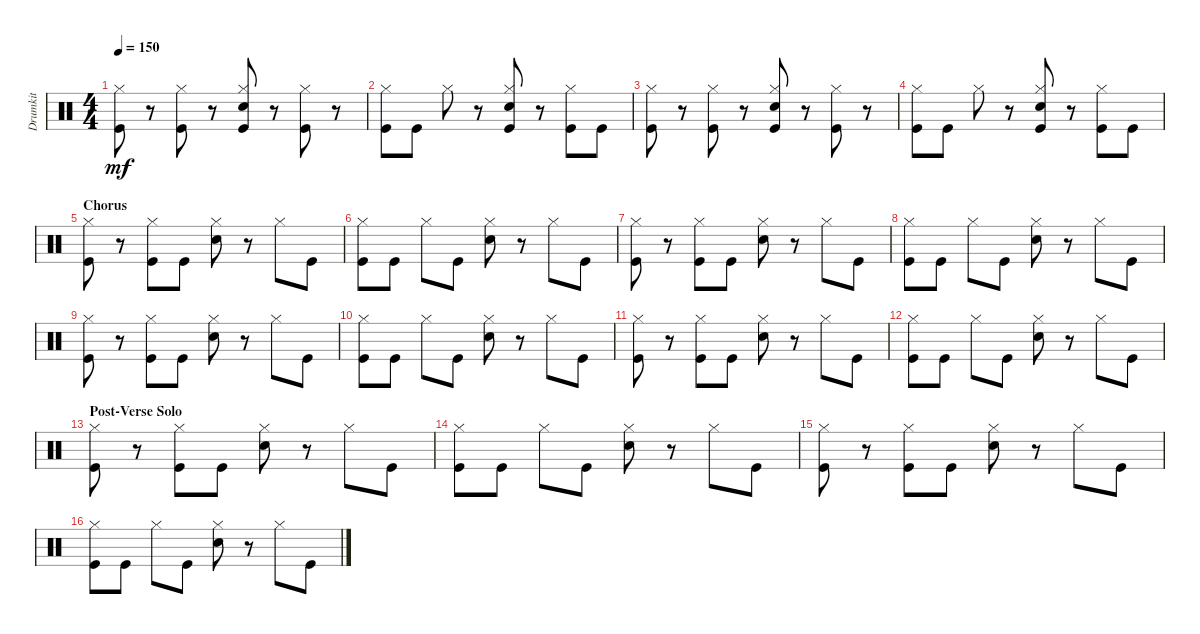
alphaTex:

\track ("Drumkit" "Drumkit") {instrument percussion}
\staff {score}
\articulation defaults
\ts (4 4)
\tempo 150
\clef neutral
\ks c
("Kick (hit)" "Hi-Hat (closed)").8{dy mf} r.8 ("Kick (hit)" "Hi-Hat (closed)").8 r.8 ("Snare (hit) 2" "Kick (hit)" "Hi-Hat (closed)").8 r.8 ("Kick (hit)" "Hi-Hat (closed)").8 r.8 |
("Kick (hit)" "Hi-Hat (closed)").8 "Kick (hit)".8 "Hi-Hat (closed)".8 r.8 ("Snare (hit) 2" "Kick (hit)" "Hi-Hat (closed)").8 r.8 ("Kick (hit)" "Hi-Hat (closed)").8 "Kick (hit)".8 |
("Kick (hit)" "Hi-Hat (closed)").8 r.8 ("Kick (hit)" "Hi-Hat (closed)").8 r.8 ("Snare (hit) 2" "Kick (hit)" "Hi-Hat (closed)").8 r.8 ("Kick (hit)" "Hi-Hat (closed)").8 r.8 |
("Kick (hit)" "Hi-Hat (closed)").8 "Kick (hit)".8 "Hi-Hat (closed)".8 r.8 ("Snare (hit) 2" "Kick (hit)" "Hi-Hat (closed)").8 r.8 ("Kick (hit)" "Hi-Hat (closed)").8 "Kick (hit)".8 |
\section ("" "Chorus")
("Kick (hit)" "Hi-Hat (closed)").8 r.8 ("Kick (hit)" "Hi-Hat (closed)").8 "Kick (hit)".8 ("Snare (hit) 2" "Hi-Hat (closed)").8 r.8 "Hi-Hat (closed)".8 "Kick (hit)".8 |
("Kick (hit)" "Hi-Hat (closed)").8 "Kick (hit)".8 "Hi-Hat (closed)".8 "Kick (hit)".8 ("Snare (hit) 2" "Hi-Hat (closed)").8 r.8 "Hi-Hat (closed)".8 "Kick (hit)".8 |
("Kick (hit)" "Hi-Hat (closed)").8 r.8 ("Kick (hit)" "Hi-Hat (closed)").8 "Kick (hit)".8 ("Snare (hit) 2" "Hi-Hat (closed)").8 r.8 "Hi-Hat (closed)".8 "Kick (hit)".8 |
("Kick (hit)" "Hi-Hat (closed)").8 "Kick (hit)".8 "Hi-Hat (closed)".8 "Kick (hit)".8 ("Snare (hit) 2" "Hi-Hat (closed)").8 r.8 "Hi-Hat (closed)".8 "Kick (hit)".8 |
("Kick (hit)" "Hi-Hat (closed)").8 r.8 ("Kick (hit)" "Hi-Hat (closed)").8 "Kick (hit)".8 ("Snare (hit) 2" "Hi-Hat (closed)").8 r.8 "Hi-Hat (closed)".8 "Kick (hit)".8 |
("Kick (hit)" "Hi-Hat (closed)").8 "Kick (hit)".8 "Hi-Hat (closed)".8 "Kick (hit)".8 ("Snare (hit) 2" "Hi-Hat (closed)").8 r.8 "Hi-Hat (closed)".8 "Kick (hit)".8 |
("Kick (hit)" "Hi-Hat (closed)").8 r.8 ("Kick (hit)" "Hi-Hat (closed)").8 "Kick (hit)".8 ("Snare (hit) 2" "Hi-Hat (closed)").8 r.8 "Hi-Hat (closed)".8 "Kick (hit)".8 |
("Kick (hit)" "Hi-Hat (closed)").8 "Kick (hit)".8 "Hi-Hat (closed)".8 "Kick (hit)".8 ("Snare (hit) 2" "Hi-Hat (closed)").8 r.8 "Hi-Hat (closed)".8 "Kick (hit)".8 |
\section ("" "Post-Verse Solo")
("Kick (hit)" "Hi-Hat (closed)").8 r.8 ("Kick (hit)" "Hi-Hat (closed)").8 "Kick (hit)".8 ("Snare (hit) 2" "Hi-Hat (closed)").8 r.8 "Hi-Hat (closed)".8 "Kick (hit)".8 |
("Kick (hit)" "Hi-Hat (closed)").8 "Kick (hit)".8 "Hi-Hat (closed)".8 "Kick (hit)".8 ("Snare (hit) 2" "Hi-Hat (closed)").8 r.8 "Hi-Hat (closed)".8 "Kick (hit)".8 |
("Kick (hit)" "Hi-Hat (closed)").8 r.8 ("Kick (hit)" "Hi-Hat (closed)").8 "Kick (hit)".8 ("Snare (hit) 2" "Hi-Hat (closed)").8 r.8 "Hi-Hat (closed)".8 "Kick (hit)".8 |
("Kick (hit)" "Hi-Hat (closed)").8 "Kick (hit)".8 "Hi-Hat (closed)".8 "Kick (hit)".8 ("Snare (hit) 2" "Hi-Hat (closed)").8 r.8 "Hi-Hat (closed)".8 "Kick (hit)".8
